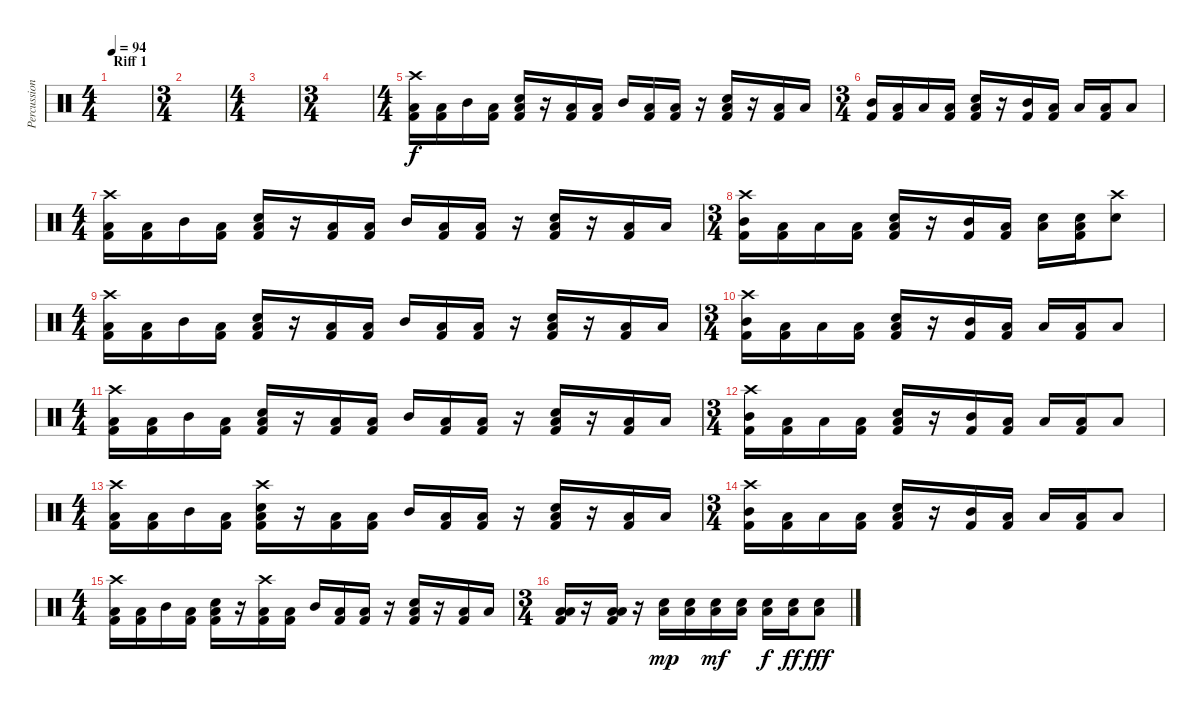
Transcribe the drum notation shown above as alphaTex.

\track ("Percussion" "Percussion") {instrument percussion}
\staff {score}
\articulation defaults
\ts (4 4)
\section ("" "Riff 1")
\tempo 94
\clef neutral
\ks c
|
\ts (3 4)
|
\ts (4 4)
|
\ts (3 4)
|
\ts (4 4)
("Crash high (hit)" "Low Tom (hit)" "Kick (hit) 2").16 ("Low Floor Tom (hit)" "Kick (hit) 2").16 "Mid Tom (hit)".16 ("Low Tom (hit)" "Kick (hit) 2").16 ("Electric Snare (hit)" "Low Floor Tom (hit)" "Kick (hit) 2").16 r.16 ("Low Tom (hit)" "Kick (hit) 2").16 ("Low Floor Tom (hit)" "Kick (hit) 2").16 "Mid Tom (hit)".16 ("Low Tom (hit)" "Kick (hit) 2").16 ("Low Floor Tom (hit)" "Kick (hit) 2").16 r.16 ("Electric Snare (hit)" "Low Tom (hit)" "Kick (hit) 2").16 r.16 ("Low Tom (hit)" "Kick (hit) 2").16 "Low Floor Tom (hit)".16 |
\ts (3 4)
("Mid Tom (hit)" "Kick (hit) 2").16 ("Low Tom (hit)" "Kick (hit) 2").16 "Low Floor Tom (hit)".16 ("Low Tom (hit)" "Kick (hit) 2").16 ("Electric Snare (hit)" "Low Floor Tom (hit)" "Kick (hit) 2").16 r.16 ("Mid Tom (hit)" "Kick (hit) 2").16 ("Low Tom (hit)" "Kick (hit) 2").16 "Low Tom (hit)".16 ("Low Tom (hit)" "Kick (hit) 2").16 "Low Floor Tom (hit)".8 |
\ts (4 4)
("Crash high (hit)" "Low Tom (hit)" "Kick (hit) 2").16 ("Low Floor Tom (hit)" "Kick (hit) 2").16 "Mid Tom (hit)".16 ("Low Tom (hit)" "Kick (hit) 2").16 ("Electric Snare (hit)" "Low Floor Tom (hit)" "Kick (hit) 2").16 r.16 ("Low Tom (hit)" "Kick (hit) 2").16 ("Low Floor Tom (hit)" "Kick (hit) 2").16 "Mid Tom (hit)".16 ("Low Tom (hit)" "Kick (hit) 2").16 ("Low Floor Tom (hit)" "Kick (hit) 2").16 r.16 ("Electric Snare (hit)" "Low Tom (hit)" "Kick (hit) 2").16 r.16 ("Low Tom (hit)" "Kick (hit) 2").16 "Low Floor Tom (hit)".16 |
\ts (3 4)
("Crash high (hit)" "Mid Tom (hit)" "Kick (hit) 2").16 ("Low Tom (hit)" "Kick (hit) 2").16 "Low Floor Tom (hit)".16 ("Low Tom (hit)" "Kick (hit) 2").16 ("Electric Snare (hit)" "Low Floor Tom (hit)" "Kick (hit) 2").16 r.16 ("Mid Tom (hit)" "Kick (hit) 2").16 ("Low Tom (hit)" "Kick (hit) 2").16 ("Electric Snare (hit)" "Low Floor Tom (hit)").16 ("Electric Snare (hit)" "Low Floor Tom (hit)" "Kick (hit) 2").16 ("Crash high (hit)" "Electric Snare (hit)").8 |
\ts (4 4)
("Crash high (hit)" "Low Tom (hit)" "Kick (hit) 2").16 ("Low Floor Tom (hit)" "Kick (hit) 2").16 "Mid Tom (hit)".16 ("Low Tom (hit)" "Kick (hit) 2").16 ("Electric Snare (hit)" "Low Floor Tom (hit)" "Kick (hit) 2").16 r.16 ("Low Tom (hit)" "Kick (hit) 2").16 ("Low Floor Tom (hit)" "Kick (hit) 2").16 "Mid Tom (hit)".16 ("Low Tom (hit)" "Kick (hit) 2").16 ("Low Floor Tom (hit)" "Kick (hit) 2").16 r.16 ("Electric Snare (hit)" "Low Tom (hit)" "Kick (hit) 2").16 r.16 ("Low Tom (hit)" "Kick (hit) 2").16 "Low Floor Tom (hit)".16 |
\ts (3 4)
("Crash high (hit)" "Mid Tom (hit)" "Kick (hit) 2").16 ("Low Tom (hit)" "Kick (hit) 2").16 "Low Floor Tom (hit)".16 ("Low Tom (hit)" "Kick (hit) 2").16 ("Electric Snare (hit)" "Low Floor Tom (hit)" "Kick (hit) 2").16 r.16 ("Mid Tom (hit)" "Kick (hit) 2").16 ("Low Tom (hit)" "Kick (hit) 2").16 "Low Tom (hit)".16 ("Low Tom (hit)" "Kick (hit) 2").16 "Low Floor Tom (hit)".8 |
\ts (4 4)
("Crash high (hit)" "Low Tom (hit)" "Kick (hit) 2").16 ("Low Floor Tom (hit)" "Kick (hit) 2").16 "Mid Tom (hit)".16 ("Low Tom (hit)" "Kick (hit) 2").16 ("Electric Snare (hit)" "Low Floor Tom (hit)" "Kick (hit) 2").16 r.16 ("Low Tom (hit)" "Kick (hit) 2").16 ("Low Floor Tom (hit)" "Kick (hit) 2").16 "Mid Tom (hit)".16 ("Low Tom (hit)" "Kick (hit) 2").16 ("Low Floor Tom (hit)" "Kick (hit) 2").16 r.16 ("Electric Snare (hit)" "Low Tom (hit)" "Kick (hit) 2").16 r.16 ("Low Tom (hit)" "Kick (hit) 2").16 "Low Floor Tom (hit)".16 |
\ts (3 4)
("Crash high (hit)" "Mid Tom (hit)" "Kick (hit) 2").16 ("Low Tom (hit)" "Kick (hit) 2").16 "Low Floor Tom (hit)".16 ("Low Tom (hit)" "Kick (hit) 2").16 ("Electric Snare (hit)" "Low Floor Tom (hit)" "Kick (hit) 2").16 r.16 ("Mid Tom (hit)" "Kick (hit) 2").16 ("Low Tom (hit)" "Kick (hit) 2").16 "Low Tom (hit)".16 ("Low Tom (hit)" "Kick (hit) 2").16 "Low Floor Tom (hit)".8 |
\ts (4 4)
("Crash high (hit)" "Low Tom (hit)" "Kick (hit) 2").16 ("Low Floor Tom (hit)" "Kick (hit) 2").16 "Mid Tom (hit)".16 ("Low Tom (hit)" "Kick (hit) 2").16 ("Crash high (hit)" "Electric Snare (hit)" "Low Floor Tom (hit)" "Kick (hit) 2").16 r.16 ("Low Tom (hit)" "Kick (hit) 2").16 ("Low Floor Tom (hit)" "Kick (hit) 2").16 "Mid Tom (hit)".16 ("Low Tom (hit)" "Kick (hit) 2").16 ("Low Floor Tom (hit)" "Kick (hit) 2").16 r.16 ("Electric Snare (hit)" "Low Tom (hit)" "Kick (hit) 2").16 r.16 ("Low Tom (hit)" "Kick (hit) 2").16 "Low Floor Tom (hit)".16 |
\ts (3 4)
("Crash high (hit)" "Mid Tom (hit)" "Kick (hit) 2").16 ("Low Tom (hit)" "Kick (hit) 2").16 "Low Floor Tom (hit)".16 ("Low Tom (hit)" "Kick (hit) 2").16 ("Electric Snare (hit)" "Low Floor Tom (hit)" "Kick (hit) 2").16 r.16 ("Mid Tom (hit)" "Kick (hit) 2").16 ("Low Tom (hit)" "Kick (hit) 2").16 "Low Tom (hit)".16 ("Low Tom (hit)" "Kick (hit) 2").16 "Low Floor Tom (hit)".8 |
\ts (4 4)
("Crash high (hit)" "Low Tom (hit)" "Kick (hit) 2").16 ("Low Floor Tom (hit)" "Kick (hit) 2").16 "Mid Tom (hit)".16 ("Low Tom (hit)" "Kick (hit) 2").16 ("Electric Snare (hit)" "Low Floor Tom (hit)" "Kick (hit) 2").16 r.16 ("Crash high (hit)" "Low Tom (hit)" "Kick (hit) 2").16 ("Low Floor Tom (hit)" "Kick (hit) 2").16 "Mid Tom (hit)".16 ("Low Tom (hit)" "Kick (hit) 2").16 ("Low Floor Tom (hit)" "Kick (hit) 2").16 r.16 ("Electric Snare (hit)" "Low Tom (hit)" "Kick (hit) 2").16 r.16 ("Low Tom (hit)" "Kick (hit) 2").16 "Low Floor Tom (hit)".16 |
\ts (3 4)
("Low Tom (hit)" "Low Floor Tom (hit)" "Kick (hit) 2").16 r.16 ("Low Tom (hit)" "Low Floor Tom (hit)" "Kick (hit) 2").16 r.16 ("Electric Snare (hit)" "Low Floor Tom (hit)").16{dy mp} ("Electric Snare (hit)" "Low Floor Tom (hit)").16 ("Electric Snare (hit)" "Low Floor Tom (hit)").16{dy mf} ("Electric Snare (hit)" "Low Floor Tom (hit)").16 ("Electric Snare (hit)" "Low Floor Tom (hit)").16{dy f} ("Electric Snare (hit)" "Low Floor Tom (hit)").16{dy ff} ("Electric Snare (hit)" "Low Floor Tom (hit)").8{dy fff}
